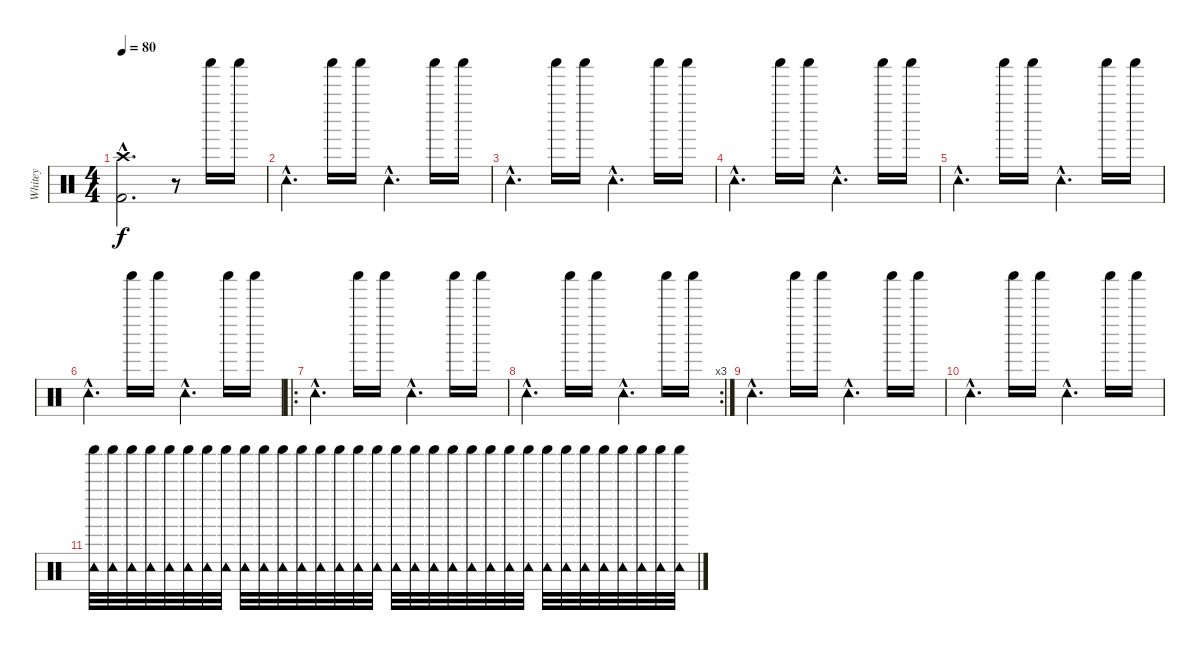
\track ("Whitey" "Whitey") {instrument percussion}
\staff {score}
\articulation defaults
\ts (4 4)
\tempo 80
\clef neutral
\ks c
("Crash high (hit)"{hac} "Kick (hit) 2"{hac}).2{d dy f} r.8 "Shaker (hit)".16 "Shaker (hit)".16 |
"Tambourine (hit)"{hac}.4{d} "Shaker (hit)".16 "Shaker (hit)".16 "Tambourine (hit)"{hac}.4{d} "Shaker (hit)".16 "Shaker (hit)".16 |
"Tambourine (hit)"{hac}.4{d} "Shaker (hit)".16 "Shaker (hit)".16 "Tambourine (hit)"{hac}.4{d} "Shaker (hit)".16 "Shaker (hit)".16 |
"Tambourine (hit)"{hac}.4{d} "Shaker (hit)".16 "Shaker (hit)".16 "Tambourine (hit)"{hac}.4{d} "Shaker (hit)".16 "Shaker (hit)".16 |
"Tambourine (hit)"{hac}.4{d} "Shaker (hit)".16 "Shaker (hit)".16 "Tambourine (hit)"{hac}.4{d} "Shaker (hit)".16 "Shaker (hit)".16 |
"Tambourine (hit)"{hac}.4{d} "Shaker (hit)".16 "Shaker (hit)".16 "Tambourine (hit)"{hac}.4{d} "Shaker (hit)".16 "Shaker (hit)".16 |
\ro "Tambourine (hit)"{hac}.4{d} "Shaker (hit)".16 "Shaker (hit)".16 "Tambourine (hit)"{hac}.4{d} "Shaker (hit)".16 "Shaker (hit)".16
|
\rc 3 "Tambourine (hit)"{hac}.4{d} "Shaker (hit)".16 "Shaker (hit)".16 "Tambourine (hit)"{hac}.4{d} "Shaker (hit)".16 "Shaker (hit)".16
|
"Tambourine (hit)"{hac}.4{d} "Shaker (hit)".16 "Shaker (hit)".16 "Tambourine (hit)"{hac}.4{d} "Shaker (hit)".16 "Shaker (hit)".16 |
"Tambourine (hit)"{hac}.4{d} "Shaker (hit)".16 "Shaker (hit)".16 "Tambourine (hit)"{hac}.4{d} "Shaker (hit)".16 "Shaker (hit)".16 |
("Shaker (hit)" "Tambourine (hit)").32{volume 0} ("Shaker (hit)" "Tambourine (hit)").32 ("Shaker (hit)" "Tambourine (hit)").32 ("Shaker (hit)" "Tambourine (hit)").32 ("Shaker (hit)" "Tambourine (hit)").32 ("Shaker (hit)" "Tambourine (hit)").32 ("Shaker (hit)" "Tambourine (hit)").32 ("Shaker (hit)" "Tambourine (hit)").32 ("Shaker (hit)" "Tambourine (hit)").32 ("Shaker (hit)" "Tambourine (hit)").32 ("Shaker (hit)" "Tambourine (hit)").32 ("Shaker (hit)" "Tambourine (hit)").32 ("Shaker (hit)" "Tambourine (hit)").32 ("Shaker (hit)" "Tambourine (hit)").32 ("Shaker (hit)" "Tambourine (hit)").32 ("Shaker (hit)" "Tambourine (hit)").32 ("Shaker (hit)" "Tambourine (hit)").32 ("Shaker (hit)" "Tambourine (hit)").32 ("Shaker (hit)" "Tambourine (hit)").32 ("Shaker (hit)" "Tambourine (hit)").32 ("Shaker (hit)" "Tambourine (hit)").32 ("Shaker (hit)" "Tambourine (hit)").32 ("Shaker (hit)" "Tambourine (hit)").32 ("Shaker (hit)" "Tambourine (hit)").32 ("Shaker (hit)" "Tambourine (hit)").32 ("Shaker (hit)" "Tambourine (hit)").32 ("Shaker (hit)" "Tambourine (hit)").32 ("Shaker (hit)" "Tambourine (hit)").32 ("Shaker (hit)" "Tambourine (hit)").32 ("Shaker (hit)" "Tambourine (hit)").32 ("Shaker (hit)" "Tambourine (hit)").32 ("Shaker (hit)" "Tambourine (hit)").32
